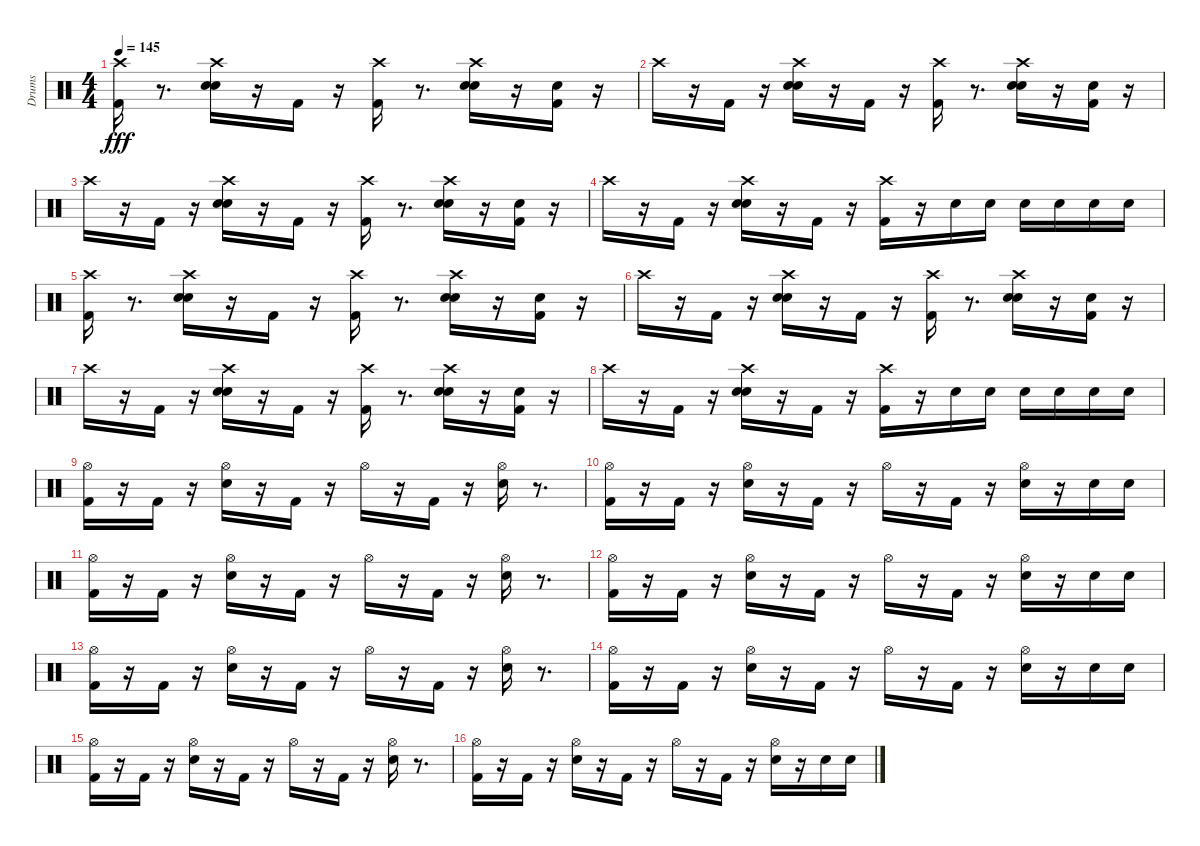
\track ("Drums" "Drums") {instrument percussion}
\staff {score}
\articulation defaults
\ts (4 4)
\tempo 145
\clef neutral
\ks c
("Kick (hit) 2" "Crash high (hit)").16{dy fff} r.8{d} ("Crash high (hit)" "Hand Clap (hit)" "Electric Snare (hit)").16 r.16 "Kick (hit) 2".16 r.16 ("Crash high (hit)" "Kick (hit) 2").16 r.8{d} ("Crash high (hit)" "Hand Clap (hit)" "Electric Snare (hit)").16 r.16 ("Hand Clap (hit)" "Kick (hit) 2").16 r.16 |
"Crash high (hit)".16 r.16 "Kick (hit) 2".16 r.16 ("Crash high (hit)" "Hand Clap (hit)" "Electric Snare (hit)").16 r.16 "Kick (hit) 2".16 r.16 ("Crash high (hit)" "Kick (hit) 2").16 r.8{d} ("Crash high (hit)" "Hand Clap (hit)" "Electric Snare (hit)").16 r.16 ("Hand Clap (hit)" "Kick (hit) 2").16 r.16 |
"Crash high (hit)".16 r.16 "Kick (hit) 2".16 r.16 ("Crash high (hit)" "Hand Clap (hit)" "Electric Snare (hit)").16 r.16 "Kick (hit) 2".16 r.16 ("Crash high (hit)" "Kick (hit) 2").16 r.8{d} ("Crash high (hit)" "Hand Clap (hit)" "Electric Snare (hit)").16 r.16 ("Hand Clap (hit)" "Kick (hit) 2").16 r.16 |
"Crash high (hit)".16 r.16 "Kick (hit) 2".16 r.16 ("Crash high (hit)" "Electric Snare (hit)" "Hand Clap (hit)").16 r.16 "Kick (hit) 2".16 r.16 ("Crash high (hit)" "Kick (hit) 2").16 r.16 "Electric Snare (hit)".16 "Electric Snare (hit)".16 "Electric Snare (hit)".16 "Electric Snare (hit)".16 "Electric Snare (hit)".16 "Electric Snare (hit)".16 |
("Kick (hit) 2" "Crash high (hit)").16 r.8{d} ("Crash high (hit)" "Hand Clap (hit)" "Electric Snare (hit)").16 r.16 "Kick (hit) 2".16 r.16 ("Crash high (hit)" "Kick (hit) 2").16 r.8{d} ("Crash high (hit)" "Hand Clap (hit)" "Electric Snare (hit)").16 r.16 ("Hand Clap (hit)" "Kick (hit) 2").16 r.16 |
"Crash high (hit)".16 r.16 "Kick (hit) 2".16 r.16 ("Crash high (hit)" "Hand Clap (hit)" "Electric Snare (hit)").16 r.16 "Kick (hit) 2".16 r.16 ("Crash high (hit)" "Kick (hit) 2").16 r.8{d} ("Crash high (hit)" "Hand Clap (hit)" "Electric Snare (hit)").16 r.16 ("Hand Clap (hit)" "Kick (hit) 2").16 r.16 |
"Crash high (hit)".16 r.16 "Kick (hit) 2".16 r.16 ("Crash high (hit)" "Hand Clap (hit)" "Electric Snare (hit)").16 r.16 "Kick (hit) 2".16 r.16 ("Crash high (hit)" "Kick (hit) 2").16 r.8{d} ("Crash high (hit)" "Hand Clap (hit)" "Electric Snare (hit)").16 r.16 ("Hand Clap (hit)" "Kick (hit) 2").16 r.16 |
"Crash high (hit)".16 r.16 "Kick (hit) 2".16 r.16 ("Crash high (hit)" "Electric Snare (hit)" "Hand Clap (hit)").16 r.16 "Kick (hit) 2".16 r.16 ("Crash high (hit)" "Kick (hit) 2").16 r.16 "Electric Snare (hit)".16 "Electric Snare (hit)".16 "Electric Snare (hit)".16 "Electric Snare (hit)".16 "Electric Snare (hit)".16 "Electric Snare (hit)".16 |
("Hi-Hat (open)" "Kick (hit) 2").16 r.16 "Kick (hit) 2".16 r.16 ("Hi-Hat (open)" "Electric Snare (hit)").16 r.16 "Kick (hit) 2".16 r.16 "Hi-Hat (open)".16 r.16 "Kick (hit) 2".16 r.16 ("Hi-Hat (open)" "Electric Snare (hit)").16 r.8{d} |
("Kick (hit) 2" "Hi-Hat (open)").16 r.16 "Kick (hit) 2".16 r.16 ("Electric Snare (hit)" "Hi-Hat (open)").16 r.16 "Kick (hit) 2".16 r.16 "Hi-Hat (open)".16 r.16 "Kick (hit) 2".16 r.16 ("Electric Snare (hit)" "Hi-Hat (open)").16 r.16 "Electric Snare (hit)".16 "Electric Snare (hit)".16 |
("Kick (hit) 2" "Hi-Hat (open)").16 r.16 "Kick (hit) 2".16 r.16 ("Electric Snare (hit)" "Hi-Hat (open)").16 r.16 "Kick (hit) 2".16 r.16 "Hi-Hat (open)".16 r.16 "Kick (hit) 2".16 r.16 ("Electric Snare (hit)" "Hi-Hat (open)").16 r.8{d} |
("Kick (hit) 2" "Hi-Hat (open)").16 r.16 "Kick (hit) 2".16 r.16 ("Electric Snare (hit)" "Hi-Hat (open)").16 r.16 "Kick (hit) 2".16 r.16 "Hi-Hat (open)".16 r.16 "Kick (hit) 2".16 r.16 ("Electric Snare (hit)" "Hi-Hat (open)").16 r.16 "Electric Snare (hit)".16 "Electric Snare (hit)".16 |
("Kick (hit) 2" "Hi-Hat (open)").16 r.16 "Kick (hit) 2".16 r.16 ("Electric Snare (hit)" "Hi-Hat (open)").16 r.16 "Kick (hit) 2".16 r.16 "Hi-Hat (open)".16 r.16 "Kick (hit) 2".16 r.16 ("Electric Snare (hit)" "Hi-Hat (open)").16 r.8{d} |
("Hi-Hat (open)" "Kick (hit) 2").16 r.16 "Kick (hit) 2".16 r.16 ("Hi-Hat (open)" "Electric Snare (hit)").16 r.16 "Kick (hit) 2".16 r.16 "Hi-Hat (open)".16 r.16 "Kick (hit) 2".16 r.16 ("Hi-Hat (open)" "Electric Snare (hit)").16 r.16 "Electric Snare (hit)".16 "Electric Snare (hit)".16 |
("Hi-Hat (open)" "Kick (hit) 2").16 r.16 "Kick (hit) 2".16 r.16 ("Hi-Hat (open)" "Electric Snare (hit)").16 r.16 "Kick (hit) 2".16 r.16 "Hi-Hat (open)".16 r.16 "Kick (hit) 2".16 r.16 ("Hi-Hat (open)" "Electric Snare (hit)").16 r.8{d} |
("Kick (hit) 2" "Hi-Hat (open)").16 r.16 "Kick (hit) 2".16 r.16 ("Electric Snare (hit)" "Hi-Hat (open)").16 r.16 "Kick (hit) 2".16 r.16 "Hi-Hat (open)".16 r.16 "Kick (hit) 2".16 r.16 ("Electric Snare (hit)" "Hi-Hat (open)").16 r.16 "Electric Snare (hit)".16 "Electric Snare (hit)".16
